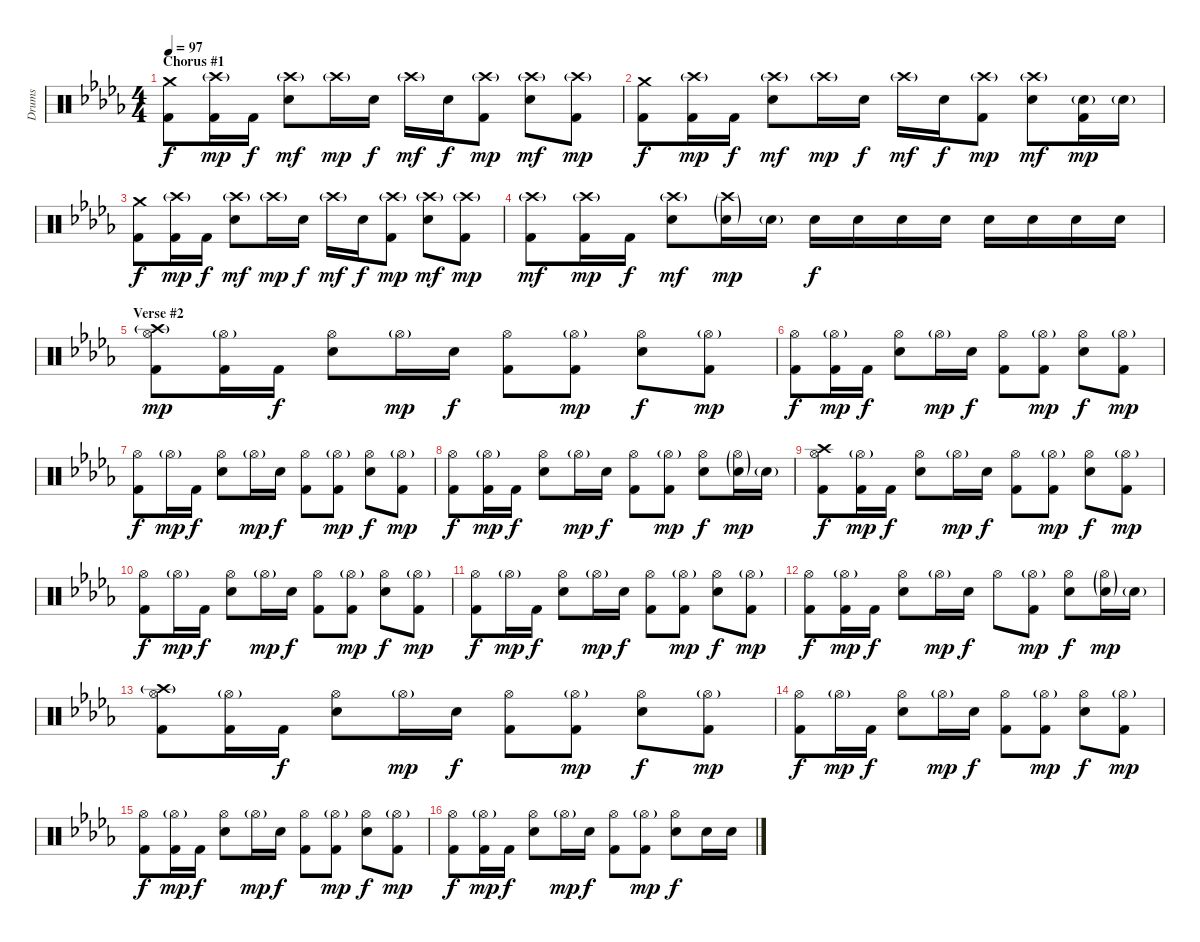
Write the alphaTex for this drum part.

\track ("Drums" "Drums") {instrument percussion}
\staff {score}
\articulation defaults
\ts (4 4)
\section ("" "Chorus #1")
\tempo 97
\clef neutral
\ks db
("Crash medium (hit)" "Kick (hit) 2").8{dy f} ("Crash high (hit)"{g} "Kick (hit) 2").16{dy mp} "Kick (hit) 2".16{dy f} ("Crash high (hit)"{g} "Electric Snare (hit)").8{dy mf} "Crash high (hit)"{g}.16{dy mp} "Electric Snare (hit)".16{dy f} "Crash high (hit)"{g}.16{dy mf} "Electric Snare (hit)".16{dy f} ("Crash high (hit)"{g} "Kick (hit) 2").8{dy mp} ("Crash high (hit)"{g} "Electric Snare (hit)").8{dy mf} ("Crash high (hit)"{g} "Kick (hit) 2").8{dy mp} |
("Crash medium (hit)" "Kick (hit) 2").8{dy f} ("Crash high (hit)"{g} "Kick (hit) 2").16{dy mp} "Kick (hit) 2".16{dy f} ("Crash high (hit)"{g} "Electric Snare (hit)").8{dy mf} "Crash high (hit)"{g}.16{dy mp} "Electric Snare (hit)".16{dy f} "Crash high (hit)"{g}.16{dy mf} "Electric Snare (hit)".16{dy f} ("Crash high (hit)"{g} "Kick (hit) 2").8{dy mp} ("Crash high (hit)"{g} "Electric Snare (hit)").8{dy mf} ("Electric Snare (hit)"{g} "Kick (hit) 2").16{dy mp} "Electric Snare (hit)"{g}.16 |
("Crash medium (hit)" "Kick (hit) 2").8{dy f} ("Crash high (hit)"{g} "Kick (hit) 2").16{dy mp} "Kick (hit) 2".16{dy f} ("Crash high (hit)"{g} "Electric Snare (hit)").8{dy mf} "Crash high (hit)"{g}.16{dy mp} "Electric Snare (hit)".16{dy f} "Crash high (hit)"{g}.16{dy mf} "Electric Snare (hit)".16{dy f} ("Crash high (hit)"{g} "Kick (hit) 2").8{dy mp} ("Crash high (hit)"{g} "Electric Snare (hit)").8{dy mf} ("Crash high (hit)"{g} "Kick (hit) 2").8{dy mp} |
("Crash high (hit)"{g} "Kick (hit) 2").8{dy mf} ("Crash high (hit)"{g} "Kick (hit) 2").16{dy mp} "Kick (hit) 2".16{dy f} ("Crash high (hit)"{g} "Electric Snare (hit)").8{dy mf} ("Crash high (hit)"{g} "Electric Snare (hit)"{g}).16{dy mp} "Electric Snare (hit)"{g}.16 "Electric Snare (hit)".16{dy f} "Electric Snare (hit)".16 "Electric Snare (hit)".16 "Electric Snare (hit)".16 "Electric Snare (hit)".16 "Electric Snare (hit)".16 "Electric Snare (hit)".16 "Electric Snare (hit)".16 |
\section ("" "Verse #2")
("Hi-Hat (open)" "Crash high (hit)"{g} "Kick (hit) 2").8{dy mp} ("Hi-Hat (open)"{g} "Kick (hit) 2").16 "Kick (hit) 2".16{dy f} ("Hi-Hat (open)" "Electric Snare (hit)").8 "Hi-Hat (open)"{g}.16{dy mp} "Electric Snare (hit)".16{dy f} ("Hi-Hat (open)" "Kick (hit) 2").8 ("Hi-Hat (open)"{g} "Kick (hit) 2").8{dy mp} ("Hi-Hat (open)" "Electric Snare (hit)").8{dy f} ("Hi-Hat (open)"{g} "Kick (hit) 2").8{dy mp} |
("Hi-Hat (open)" "Kick (hit) 2").8{dy f} ("Hi-Hat (open)"{g} "Kick (hit) 2").16{dy mp} "Kick (hit) 2".16{dy f} ("Hi-Hat (open)" "Electric Snare (hit)").8 "Hi-Hat (open)"{g}.16{dy mp} "Electric Snare (hit)".16{dy f} ("Hi-Hat (open)" "Kick (hit) 2").8 ("Hi-Hat (open)"{g} "Kick (hit) 2").8{dy mp} ("Hi-Hat (open)" "Electric Snare (hit)").8{dy f} ("Hi-Hat (open)"{g} "Kick (hit) 2").8{dy mp} |
("Hi-Hat (open)" "Kick (hit) 2").8{dy f} "Hi-Hat (open)"{g}.16{dy mp} "Kick (hit) 2".16{dy f} ("Hi-Hat (open)" "Electric Snare (hit)").8 "Hi-Hat (open)"{g}.16{dy mp} "Electric Snare (hit)".16{dy f} ("Hi-Hat (open)" "Kick (hit) 2").8 ("Hi-Hat (open)"{g} "Kick (hit) 2").8{dy mp} ("Hi-Hat (open)" "Electric Snare (hit)").8{dy f} ("Hi-Hat (open)"{g} "Kick (hit) 2").8{dy mp} |
("Hi-Hat (open)" "Kick (hit) 2").8{dy f} ("Hi-Hat (open)"{g} "Kick (hit) 2").16{dy mp} "Kick (hit) 2".16{dy f} ("Hi-Hat (open)" "Electric Snare (hit)").8 "Hi-Hat (open)"{g}.16{dy mp} "Electric Snare (hit)".16{dy f} ("Hi-Hat (open)" "Kick (hit) 2").8 ("Hi-Hat (open)"{g} "Kick (hit) 2").8{dy mp} ("Hi-Hat (open)" "Electric Snare (hit)").8{dy f} ("Hi-Hat (open)"{g} "Electric Snare (hit)"{g}).16{dy mp} "Electric Snare (hit)"{g}.16 |
("Hi-Hat (open)" "Crash high (hit)" "Kick (hit) 2").8{dy f} ("Hi-Hat (open)"{g} "Kick (hit) 2").16{dy mp} "Kick (hit) 2".16{dy f} ("Hi-Hat (open)" "Electric Snare (hit)").8 "Hi-Hat (open)"{g}.16{dy mp} "Electric Snare (hit)".16{dy f} ("Hi-Hat (open)" "Kick (hit) 2").8 ("Hi-Hat (open)"{g} "Kick (hit) 2").8{dy mp} ("Hi-Hat (open)" "Electric Snare (hit)").8{dy f} ("Hi-Hat (open)"{g} "Kick (hit) 2").8{dy mp} |
("Hi-Hat (open)" "Kick (hit) 2").8{dy f} "Hi-Hat (open)"{g}.16{dy mp} "Kick (hit) 2".16{dy f} ("Hi-Hat (open)" "Electric Snare (hit)").8 "Hi-Hat (open)"{g}.16{dy mp} "Electric Snare (hit)".16{dy f} ("Hi-Hat (open)" "Kick (hit) 2").8 ("Hi-Hat (open)"{g} "Kick (hit) 2").8{dy mp} ("Hi-Hat (open)" "Electric Snare (hit)").8{dy f} ("Hi-Hat (open)"{g} "Kick (hit) 2").8{dy mp} |
("Hi-Hat (open)" "Kick (hit) 2").8{dy f} "Hi-Hat (open)"{g}.16{dy mp} "Kick (hit) 2".16{dy f} ("Hi-Hat (open)" "Electric Snare (hit)").8 "Hi-Hat (open)"{g}.16{dy mp} "Electric Snare (hit)".16{dy f} ("Hi-Hat (open)" "Kick (hit) 2").8 ("Hi-Hat (open)"{g} "Kick (hit) 2").8{dy mp} ("Hi-Hat (open)" "Electric Snare (hit)").8{dy f} ("Hi-Hat (open)"{g} "Kick (hit) 2").8{dy mp} |
("Hi-Hat (open)" "Kick (hit) 2").8{dy f} ("Hi-Hat (open)"{g} "Kick (hit) 2").16{dy mp} "Kick (hit) 2".16{dy f} ("Hi-Hat (open)" "Electric Snare (hit)").8 "Hi-Hat (open)"{g}.16{dy mp} "Electric Snare (hit)".16{dy f} "Hi-Hat (open)".8 ("Hi-Hat (open)"{g} "Kick (hit) 2").8{dy mp} ("Hi-Hat (open)" "Electric Snare (hit)").8{dy f} ("Hi-Hat (open)"{g} "Electric Snare (hit)"{g}).16{dy mp} "Electric Snare (hit)"{g}.16 |
("Hi-Hat (open)" "Crash high (hit)"{g} "Kick (hit) 2").8 ("Hi-Hat (open)"{g} "Kick (hit) 2").16 "Kick (hit) 2".16{dy f} ("Hi-Hat (open)" "Electric Snare (hit)").8 "Hi-Hat (open)"{g}.16{dy mp} "Electric Snare (hit)".16{dy f} ("Hi-Hat (open)" "Kick (hit) 2").8 ("Hi-Hat (open)"{g} "Kick (hit) 2").8{dy mp} ("Hi-Hat (open)" "Electric Snare (hit)").8{dy f} ("Hi-Hat (open)"{g} "Kick (hit) 2").8{dy mp} |
("Hi-Hat (open)" "Kick (hit) 2").8{dy f} "Hi-Hat (open)"{g}.16{dy mp} "Kick (hit) 2".16{dy f} ("Hi-Hat (open)" "Electric Snare (hit)").8 "Hi-Hat (open)"{g}.16{dy mp} "Electric Snare (hit)".16{dy f} ("Hi-Hat (open)" "Kick (hit) 2").8 ("Hi-Hat (open)"{g} "Kick (hit) 2").8{dy mp} ("Hi-Hat (open)" "Electric Snare (hit)").8{dy f} ("Hi-Hat (open)"{g} "Kick (hit) 2").8{dy mp} |
("Hi-Hat (open)" "Kick (hit) 2").8{dy f} ("Hi-Hat (open)"{g} "Kick (hit) 2").16{dy mp} "Kick (hit) 2".16{dy f} ("Hi-Hat (open)" "Electric Snare (hit)").8 "Hi-Hat (open)"{g}.16{dy mp} "Electric Snare (hit)".16{dy f} ("Hi-Hat (open)" "Kick (hit) 2").8 ("Hi-Hat (open)"{g} "Kick (hit) 2").8{dy mp} ("Hi-Hat (open)" "Electric Snare (hit)").8{dy f} ("Hi-Hat (open)"{g} "Kick (hit) 2").8{dy mp} |
("Hi-Hat (open)" "Kick (hit) 2").8{dy f} ("Hi-Hat (open)"{g} "Kick (hit) 2").16{dy mp} "Kick (hit) 2".16{dy f} ("Hi-Hat (open)" "Electric Snare (hit)").8 "Hi-Hat (open)"{g}.16{dy mp} "Electric Snare (hit)".16{dy f} ("Hi-Hat (open)" "Kick (hit) 2").8 ("Hi-Hat (open)"{g} "Kick (hit) 2").8{dy mp} ("Hi-Hat (open)" "Electric Snare (hit)").8{dy f} "Electric Snare (hit)".16 "Electric Snare (hit)".16
